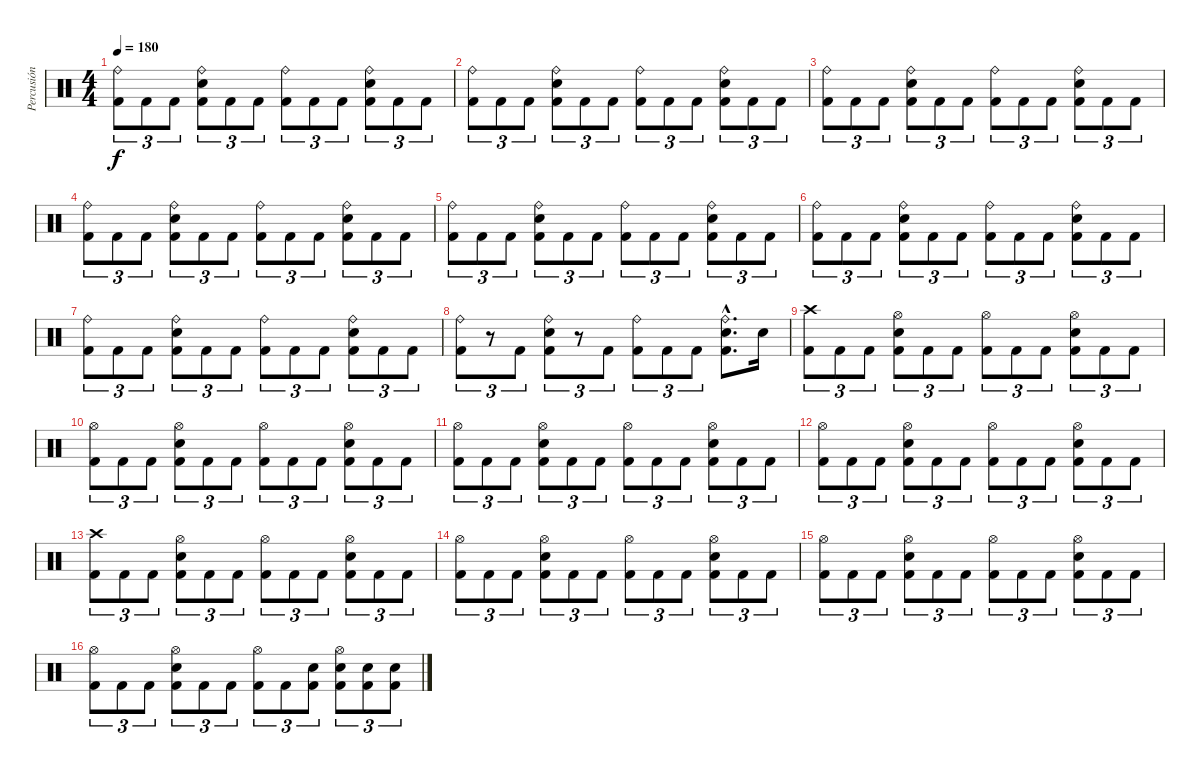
\track ("Percusión" "Percusión") {instrument percussion}
\staff {score}
\articulation defaults
\ts (4 4)
\tempo 180
\clef neutral
\ks c
("Ride (bell)" "Kick (hit) 2").8{tu (3 2) dy f} "Kick (hit) 2".8{tu (3 2)} "Kick (hit) 2".8{tu (3 2)} ("Ride (bell)" "Snare (hit) 2" "Kick (hit) 2").8{tu (3 2)} "Kick (hit) 2".8{tu (3 2)} "Kick (hit) 2".8{tu (3 2)} ("Ride (bell)" "Kick (hit) 2").8{tu (3 2)} "Kick (hit) 2".8{tu (3 2)} "Kick (hit) 2".8{tu (3 2)} ("Ride (bell)" "Snare (hit) 2" "Kick (hit) 2").8{tu (3 2)} "Kick (hit) 2".8{tu (3 2)} "Kick (hit) 2".8{tu (3 2)} |
("Ride (bell)" "Kick (hit) 2").8{tu (3 2)} "Kick (hit) 2".8{tu (3 2)} "Kick (hit) 2".8{tu (3 2)} ("Ride (bell)" "Snare (hit) 2" "Kick (hit) 2").8{tu (3 2)} "Kick (hit) 2".8{tu (3 2)} "Kick (hit) 2".8{tu (3 2)} ("Ride (bell)" "Kick (hit) 2").8{tu (3 2)} "Kick (hit) 2".8{tu (3 2)} "Kick (hit) 2".8{tu (3 2)} ("Ride (bell)" "Snare (hit) 2" "Kick (hit) 2").8{tu (3 2)} "Kick (hit) 2".8{tu (3 2)} "Kick (hit) 2".8{tu (3 2)} |
("Ride (bell)" "Kick (hit) 2").8{tu (3 2)} "Kick (hit) 2".8{tu (3 2)} "Kick (hit) 2".8{tu (3 2)} ("Ride (bell)" "Snare (hit) 2" "Kick (hit) 2").8{tu (3 2)} "Kick (hit) 2".8{tu (3 2)} "Kick (hit) 2".8{tu (3 2)} ("Ride (bell)" "Kick (hit) 2").8{tu (3 2)} "Kick (hit) 2".8{tu (3 2)} "Kick (hit) 2".8{tu (3 2)} ("Ride (bell)" "Snare (hit) 2" "Kick (hit) 2").8{tu (3 2)} "Kick (hit) 2".8{tu (3 2)} "Kick (hit) 2".8{tu (3 2)} |
("Ride (bell)" "Kick (hit) 2").8{tu (3 2)} "Kick (hit) 2".8{tu (3 2)} "Kick (hit) 2".8{tu (3 2)} ("Ride (bell)" "Snare (hit) 2" "Kick (hit) 2").8{tu (3 2)} "Kick (hit) 2".8{tu (3 2)} "Kick (hit) 2".8{tu (3 2)} ("Ride (bell)" "Kick (hit) 2").8{tu (3 2)} "Kick (hit) 2".8{tu (3 2)} "Kick (hit) 2".8{tu (3 2)} ("Ride (bell)" "Snare (hit) 2" "Kick (hit) 2").8{tu (3 2)} "Kick (hit) 2".8{tu (3 2)} "Kick (hit) 2".8{tu (3 2)} |
("Ride (bell)" "Kick (hit) 2").8{tu (3 2)} "Kick (hit) 2".8{tu (3 2)} "Kick (hit) 2".8{tu (3 2)} ("Ride (bell)" "Snare (hit) 2" "Kick (hit) 2").8{tu (3 2)} "Kick (hit) 2".8{tu (3 2)} "Kick (hit) 2".8{tu (3 2)} ("Ride (bell)" "Kick (hit) 2").8{tu (3 2)} "Kick (hit) 2".8{tu (3 2)} "Kick (hit) 2".8{tu (3 2)} ("Ride (bell)" "Snare (hit) 2" "Kick (hit) 2").8{tu (3 2)} "Kick (hit) 2".8{tu (3 2)} "Kick (hit) 2".8{tu (3 2)} |
("Ride (bell)" "Kick (hit) 2").8{tu (3 2)} "Kick (hit) 2".8{tu (3 2)} "Kick (hit) 2".8{tu (3 2)} ("Ride (bell)" "Snare (hit) 2" "Kick (hit) 2").8{tu (3 2)} "Kick (hit) 2".8{tu (3 2)} "Kick (hit) 2".8{tu (3 2)} ("Ride (bell)" "Kick (hit) 2").8{tu (3 2)} "Kick (hit) 2".8{tu (3 2)} "Kick (hit) 2".8{tu (3 2)} ("Ride (bell)" "Snare (hit) 2" "Kick (hit) 2").8{tu (3 2)} "Kick (hit) 2".8{tu (3 2)} "Kick (hit) 2".8{tu (3 2)} |
("Ride (bell)" "Kick (hit) 2").8{tu (3 2)} "Kick (hit) 2".8{tu (3 2)} "Kick (hit) 2".8{tu (3 2)} ("Ride (bell)" "Snare (hit) 2" "Kick (hit) 2").8{tu (3 2)} "Kick (hit) 2".8{tu (3 2)} "Kick (hit) 2".8{tu (3 2)} ("Ride (bell)" "Kick (hit) 2").8{tu (3 2)} "Kick (hit) 2".8{tu (3 2)} "Kick (hit) 2".8{tu (3 2)} ("Ride (bell)" "Snare (hit) 2" "Kick (hit) 2").8{tu (3 2)} "Kick (hit) 2".8{tu (3 2)} "Kick (hit) 2".8{tu (3 2)} |
("Ride (bell)" "Kick (hit) 2").8{tu (3 2)} r.8{tu (3 2)} "Kick (hit) 2".8{tu (3 2)} ("Ride (bell)" "Snare (hit) 2" "Kick (hit) 2").8{tu (3 2)} r.8{tu (3 2)} "Kick (hit) 2".8{tu (3 2)} ("Ride (bell)" "Kick (hit) 2").8{tu (3 2)} "Kick (hit) 2".8{tu (3 2)} "Kick (hit) 2".8{tu (3 2)} ("Ride (bell)"{hac} "Snare (hit) 2"{hac} "Kick (hit) 2"{hac}).8{d} "Snare (hit) 2".16 |
("Crash high (hit)" "Kick (hit) 2").8{tu (3 2)} "Kick (hit) 2".8{tu (3 2)} "Kick (hit) 2".8{tu (3 2)} ("Hi-Hat (open)" "Snare (hit) 2" "Kick (hit) 2").8{tu (3 2)} "Kick (hit) 2".8{tu (3 2)} "Kick (hit) 2".8{tu (3 2)} ("Hi-Hat (open)" "Kick (hit) 2").8{tu (3 2)} "Kick (hit) 2".8{tu (3 2)} "Kick (hit) 2".8{tu (3 2)} ("Hi-Hat (open)" "Snare (hit) 2" "Kick (hit) 2").8{tu (3 2)} "Kick (hit) 2".8{tu (3 2)} "Kick (hit) 2".8{tu (3 2)} |
("Hi-Hat (open)" "Kick (hit) 2").8{tu (3 2)} "Kick (hit) 2".8{tu (3 2)} "Kick (hit) 2".8{tu (3 2)} ("Hi-Hat (open)" "Snare (hit) 2" "Kick (hit) 2").8{tu (3 2)} "Kick (hit) 2".8{tu (3 2)} "Kick (hit) 2".8{tu (3 2)} ("Hi-Hat (open)" "Kick (hit) 2").8{tu (3 2)} "Kick (hit) 2".8{tu (3 2)} "Kick (hit) 2".8{tu (3 2)} ("Hi-Hat (open)" "Snare (hit) 2" "Kick (hit) 2").8{tu (3 2)} "Kick (hit) 2".8{tu (3 2)} "Kick (hit) 2".8{tu (3 2)} |
("Hi-Hat (open)" "Kick (hit) 2").8{tu (3 2)} "Kick (hit) 2".8{tu (3 2)} "Kick (hit) 2".8{tu (3 2)} ("Hi-Hat (open)" "Snare (hit) 2" "Kick (hit) 2").8{tu (3 2)} "Kick (hit) 2".8{tu (3 2)} "Kick (hit) 2".8{tu (3 2)} ("Hi-Hat (open)" "Kick (hit) 2").8{tu (3 2)} "Kick (hit) 2".8{tu (3 2)} "Kick (hit) 2".8{tu (3 2)} ("Hi-Hat (open)" "Snare (hit) 2" "Kick (hit) 2").8{tu (3 2)} "Kick (hit) 2".8{tu (3 2)} "Kick (hit) 2".8{tu (3 2)} |
("Hi-Hat (open)" "Kick (hit) 2").8{tu (3 2)} "Kick (hit) 2".8{tu (3 2)} "Kick (hit) 2".8{tu (3 2)} ("Hi-Hat (open)" "Snare (hit) 2" "Kick (hit) 2").8{tu (3 2)} "Kick (hit) 2".8{tu (3 2)} "Kick (hit) 2".8{tu (3 2)} ("Hi-Hat (open)" "Kick (hit) 2").8{tu (3 2)} "Kick (hit) 2".8{tu (3 2)} "Kick (hit) 2".8{tu (3 2)} ("Hi-Hat (open)" "Snare (hit) 2" "Kick (hit) 2").8{tu (3 2)} "Kick (hit) 2".8{tu (3 2)} "Kick (hit) 2".8{tu (3 2)} |
("Crash high (hit)" "Kick (hit) 2").8{tu (3 2)} "Kick (hit) 2".8{tu (3 2)} "Kick (hit) 2".8{tu (3 2)} ("Hi-Hat (open)" "Snare (hit) 2" "Kick (hit) 2").8{tu (3 2)} "Kick (hit) 2".8{tu (3 2)} "Kick (hit) 2".8{tu (3 2)} ("Hi-Hat (open)" "Kick (hit) 2").8{tu (3 2)} "Kick (hit) 2".8{tu (3 2)} "Kick (hit) 2".8{tu (3 2)} ("Hi-Hat (open)" "Snare (hit) 2" "Kick (hit) 2").8{tu (3 2)} "Kick (hit) 2".8{tu (3 2)} "Kick (hit) 2".8{tu (3 2)} |
("Hi-Hat (open)" "Kick (hit) 2").8{tu (3 2)} "Kick (hit) 2".8{tu (3 2)} "Kick (hit) 2".8{tu (3 2)} ("Hi-Hat (open)" "Snare (hit) 2" "Kick (hit) 2").8{tu (3 2)} "Kick (hit) 2".8{tu (3 2)} "Kick (hit) 2".8{tu (3 2)} ("Hi-Hat (open)" "Kick (hit) 2").8{tu (3 2)} "Kick (hit) 2".8{tu (3 2)} "Kick (hit) 2".8{tu (3 2)} ("Hi-Hat (open)" "Snare (hit) 2" "Kick (hit) 2").8{tu (3 2)} "Kick (hit) 2".8{tu (3 2)} "Kick (hit) 2".8{tu (3 2)} |
("Hi-Hat (open)" "Kick (hit) 2").8{tu (3 2)} "Kick (hit) 2".8{tu (3 2)} "Kick (hit) 2".8{tu (3 2)} ("Hi-Hat (open)" "Snare (hit) 2" "Kick (hit) 2").8{tu (3 2)} "Kick (hit) 2".8{tu (3 2)} "Kick (hit) 2".8{tu (3 2)} ("Hi-Hat (open)" "Kick (hit) 2").8{tu (3 2)} "Kick (hit) 2".8{tu (3 2)} "Kick (hit) 2".8{tu (3 2)} ("Hi-Hat (open)" "Snare (hit) 2" "Kick (hit) 2").8{tu (3 2)} "Kick (hit) 2".8{tu (3 2)} "Kick (hit) 2".8{tu (3 2)} |
("Hi-Hat (open)" "Kick (hit) 2").8{tu (3 2)} "Kick (hit) 2".8{tu (3 2)} "Kick (hit) 2".8{tu (3 2)} ("Hi-Hat (open)" "Snare (hit) 2" "Kick (hit) 2").8{tu (3 2)} "Kick (hit) 2".8{tu (3 2)} "Kick (hit) 2".8{tu (3 2)} ("Hi-Hat (open)" "Kick (hit) 2").8{tu (3 2)} "Kick (hit) 2".8{tu (3 2)} ("Snare (hit) 2" "Kick (hit) 2").8{tu (3 2)} ("Hi-Hat (open)" "Snare (hit) 2" "Kick (hit) 2").8{tu (3 2)} ("Snare (hit) 2" "Kick (hit) 2").8{tu (3 2)} ("Snare (hit) 2" "Kick (hit) 2").8{tu (3 2)}
